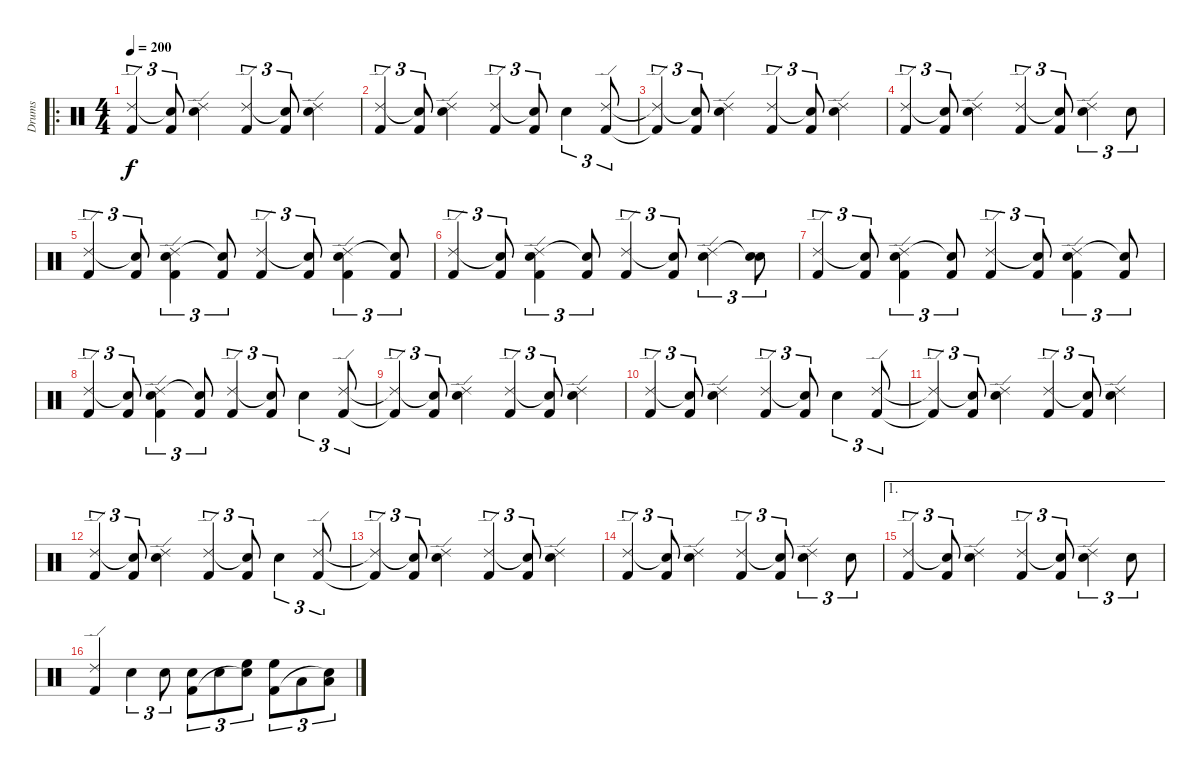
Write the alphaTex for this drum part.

\track ("Drums" "Drums") {instrument percussion}
\staff {score}
\articulation defaults
\ro
\ts (4 4)
\tempo 200
\clef neutral
\ks c
("Ride (edge) 2" "Kick (hit) 2").4{tu (3 2) dy f} ("Snare (hit)"{t} "Kick (hit) 2").8{tu (3 2)} ("Ride (edge) 2" "Snare (hit) 2").4 ("Ride (edge) 2" "Kick (hit) 2").4{tu (3 2)} ("Snare (hit)"{t} "Kick (hit) 2").8{tu (3 2)} ("Ride (edge) 2" "Snare (hit) 2").4 |
("Ride (edge) 2" "Kick (hit) 2").4{tu (3 2)} ("Snare (hit)"{t} "Kick (hit) 2").8{tu (3 2)} ("Ride (edge) 2" "Snare (hit) 2").4 ("Ride (edge) 2" "Kick (hit) 2").4{tu (3 2)} ("Snare (hit)"{t} "Kick (hit) 2").8{tu (3 2)} "Snare (hit) 2".4{tu (3 2)} ("Ride (edge) 2" "Kick (hit) 2").8{tu (3 2)} |
("Ride (edge) 2"{t} "Kick (hit) 2"{t}).4{tu (3 2)} ("Snare (hit)"{t} "Kick (hit) 2").8{tu (3 2)} ("Ride (edge) 2" "Snare (hit) 2").4 ("Ride (edge) 2" "Kick (hit) 2").4{tu (3 2)} ("Snare (hit)"{t} "Kick (hit) 2").8{tu (3 2)} ("Ride (edge) 2" "Snare (hit) 2").4 |
("Ride (edge) 2" "Kick (hit) 2").4{tu (3 2)} ("Snare (hit)"{t} "Kick (hit) 2").8{tu (3 2)} ("Ride (edge) 2" "Snare (hit) 2").4 ("Ride (edge) 2" "Kick (hit) 2").4{tu (3 2)} ("Snare (hit)"{t} "Kick (hit) 2").8{tu (3 2)} ("Ride (edge) 2" "Snare (hit) 2").4{tu (3 2)} "Snare (hit) 2".8{tu (3 2)} |
("Ride (edge) 2" "Kick (hit) 2").4{tu (3 2)} ("Snare (hit)"{t} "Kick (hit) 2").8{tu (3 2)} ("Ride (edge) 2" "Snare (hit) 2" "Kick (hit) 2").4{tu (3 2)} ("Snare (hit)"{t} "Kick (hit) 2").8{tu (3 2)} ("Ride (edge) 2" "Kick (hit) 2").4{tu (3 2)} ("Snare (hit)"{t} "Kick (hit) 2").8{tu (3 2)} ("Ride (edge) 2" "Snare (hit) 2" "Kick (hit) 2").4{tu (3 2)} ("Snare (hit)"{t} "Kick (hit) 2").8{tu (3 2)} |
("Ride (edge) 2" "Kick (hit) 2").4{tu (3 2)} ("Snare (hit)"{t} "Kick (hit) 2").8{tu (3 2)} ("Ride (edge) 2" "Snare (hit) 2" "Kick (hit) 2").4{tu (3 2)} ("Snare (hit)"{t} "Kick (hit) 2").8{tu (3 2)} ("Ride (edge) 2" "Kick (hit) 2").4{tu (3 2)} ("Snare (hit)"{t} "Kick (hit) 2").8{tu (3 2)} ("Ride (edge) 2" "Snare (hit) 2").4{tu (3 2)} ("Snare (hit)"{t} "Snare (hit) 2").8{tu (3 2)} |
("Ride (edge) 2" "Kick (hit) 2").4{tu (3 2)} ("Snare (hit)"{t} "Kick (hit) 2").8{tu (3 2)} ("Ride (edge) 2" "Snare (hit) 2" "Kick (hit) 2").4{tu (3 2)} ("Snare (hit)"{t} "Kick (hit) 2").8{tu (3 2)} ("Ride (edge) 2" "Kick (hit) 2").4{tu (3 2)} ("Snare (hit)"{t} "Kick (hit) 2").8{tu (3 2)} ("Ride (edge) 2" "Snare (hit) 2" "Kick (hit) 2").4{tu (3 2)} ("Snare (hit)"{t} "Kick (hit) 2").8{tu (3 2)} |
("Ride (edge) 2" "Kick (hit) 2").4{tu (3 2)} ("Snare (hit)"{t} "Kick (hit) 2").8{tu (3 2)} ("Ride (edge) 2" "Snare (hit) 2" "Kick (hit) 2").4{tu (3 2)} ("Snare (hit)"{t} "Kick (hit) 2").8{tu (3 2)} ("Ride (edge) 2" "Kick (hit) 2").4{tu (3 2)} ("Snare (hit)"{t} "Kick (hit) 2").8{tu (3 2)} "Snare (hit) 2".4{tu (3 2)} ("Ride (edge) 2" "Kick (hit) 2").8{tu (3 2)} |
("Ride (edge) 2"{t} "Kick (hit) 2"{t}).4{tu (3 2)} ("Snare (hit)"{t} "Kick (hit) 2").8{tu (3 2)} ("Ride (edge) 2" "Snare (hit) 2").4 ("Ride (edge) 2" "Kick (hit) 2").4{tu (3 2)} ("Snare (hit)"{t} "Kick (hit) 2").8{tu (3 2)} ("Ride (edge) 2" "Snare (hit) 2").4 |
("Ride (edge) 2" "Kick (hit) 2").4{tu (3 2)} ("Snare (hit)"{t} "Kick (hit) 2").8{tu (3 2)} ("Ride (edge) 2" "Snare (hit) 2").4 ("Ride (edge) 2" "Kick (hit) 2").4{tu (3 2)} ("Snare (hit)"{t} "Kick (hit) 2").8{tu (3 2)} "Snare (hit) 2".4{tu (3 2)} ("Ride (edge) 2" "Kick (hit) 2").8{tu (3 2)} |
("Ride (edge) 2"{t} "Kick (hit) 2"{t}).4{tu (3 2)} ("Snare (hit)"{t} "Kick (hit) 2").8{tu (3 2)} ("Ride (edge) 2" "Snare (hit) 2").4 ("Ride (edge) 2" "Kick (hit) 2").4{tu (3 2)} ("Snare (hit)"{t} "Kick (hit) 2").8{tu (3 2)} ("Ride (edge) 2" "Snare (hit) 2").4 |
("Ride (edge) 2" "Kick (hit) 2").4{tu (3 2)} ("Snare (hit)"{t} "Kick (hit) 2").8{tu (3 2)} ("Ride (edge) 2" "Snare (hit) 2").4 ("Ride (edge) 2" "Kick (hit) 2").4{tu (3 2)} ("Snare (hit)"{t} "Kick (hit) 2").8{tu (3 2)} "Snare (hit) 2".4{tu (3 2)} ("Ride (edge) 2" "Kick (hit) 2").8{tu (3 2)} |
("Ride (edge) 2"{t} "Kick (hit) 2"{t}).4{tu (3 2)} ("Snare (hit)"{t} "Kick (hit) 2").8{tu (3 2)} ("Ride (edge) 2" "Snare (hit) 2").4 ("Ride (edge) 2" "Kick (hit) 2").4{tu (3 2)} ("Snare (hit)"{t} "Kick (hit) 2").8{tu (3 2)} ("Ride (edge) 2" "Snare (hit) 2").4 |
("Ride (edge) 2" "Kick (hit) 2").4{tu (3 2)} ("Snare (hit)"{t} "Kick (hit) 2").8{tu (3 2)} ("Ride (edge) 2" "Snare (hit) 2").4 ("Ride (edge) 2" "Kick (hit) 2").4{tu (3 2)} ("Snare (hit)"{t} "Kick (hit) 2").8{tu (3 2)} ("Ride (edge) 2" "Snare (hit) 2").4{tu (3 2)} "Snare (hit) 2".8{tu (3 2)} |
\ae 1
("Ride (edge) 2" "Kick (hit) 2").4{tu (3 2)} ("Snare (hit)"{t} "Kick (hit) 2").8{tu (3 2)} ("Ride (edge) 2" "Snare (hit) 2").4 ("Ride (edge) 2" "Kick (hit) 2").4{tu (3 2)} ("Snare (hit)"{t} "Kick (hit) 2").8{tu (3 2)} ("Ride (edge) 2" "Snare (hit) 2").4{tu (3 2)} "Snare (hit) 2".8{tu (3 2)} |
("Ride (edge) 2" "Kick (hit) 2").4 "Snare (hit) 2".4{tu (3 2)} "Snare (hit) 2".8{tu (3 2)} ("Snare (hit) 2" "Kick (hit) 2").8{tu (3 2)} "Snare (hit) 2".8{tu (3 2)} ("High Floor Tom (hit)" "Snare (hit)"{t}).8{tu (3 2)} ("High Floor Tom (hit)" "Kick (hit) 2").8{tu (3 2)} "Low Tom (hit)".8{tu (3 2)} ("Low Tom (hit)" "Snare (hit)"{t}).8{tu (3 2)}
